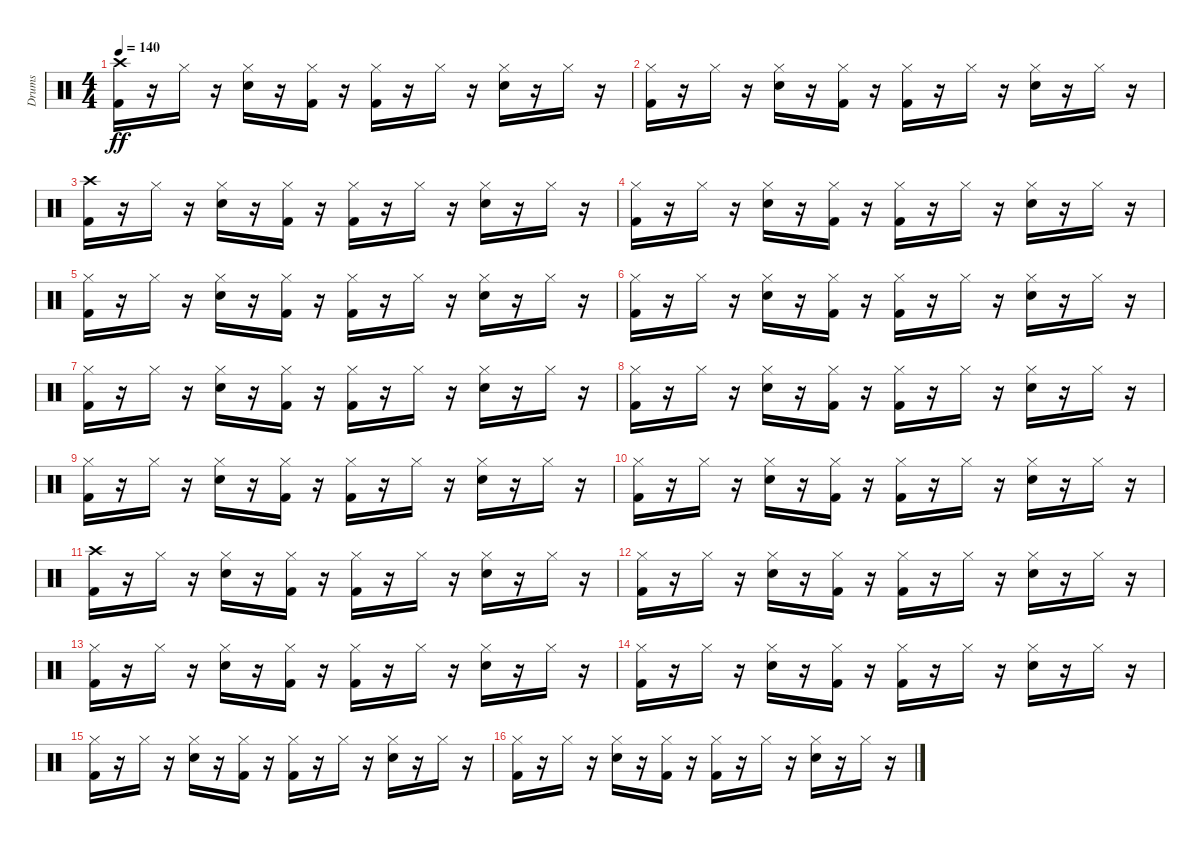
\track ("Drums" "Drums") {instrument percussion}
\staff {score}
\articulation defaults
\ts (4 4)
\tempo 140
\clef neutral
\ks c
("Crash high (hit)" "Kick (hit) 2").16{dy ff} r.16 "Hi-Hat (closed)".16 r.16 ("Hi-Hat (closed)" "Snare (hit) 2").16 r.16 ("Hi-Hat (closed)" "Kick (hit) 2").16 r.16 ("Hi-Hat (closed)" "Kick (hit) 2").16 r.16 "Hi-Hat (closed)".16 r.16 ("Hi-Hat (closed)" "Snare (hit) 2").16 r.16 "Hi-Hat (closed)".16 r.16 |
("Hi-Hat (closed)" "Kick (hit) 2").16 r.16 "Hi-Hat (closed)".16 r.16 ("Hi-Hat (closed)" "Snare (hit) 2").16 r.16 ("Hi-Hat (closed)" "Kick (hit) 2").16 r.16 ("Hi-Hat (closed)" "Kick (hit) 2").16 r.16 "Hi-Hat (closed)".16 r.16 ("Hi-Hat (closed)" "Snare (hit) 2").16 r.16 "Hi-Hat (closed)".16 r.16 |
("Crash high (hit)" "Kick (hit) 2").16 r.16 "Hi-Hat (closed)".16 r.16 ("Hi-Hat (closed)" "Snare (hit) 2").16 r.16 ("Hi-Hat (closed)" "Kick (hit) 2").16 r.16 ("Hi-Hat (closed)" "Kick (hit) 2").16 r.16 "Hi-Hat (closed)".16 r.16 ("Hi-Hat (closed)" "Snare (hit) 2").16 r.16 "Hi-Hat (closed)".16 r.16 |
("Hi-Hat (closed)" "Kick (hit) 2").16 r.16 "Hi-Hat (closed)".16 r.16 ("Hi-Hat (closed)" "Snare (hit) 2").16 r.16 ("Hi-Hat (closed)" "Kick (hit) 2").16 r.16 ("Hi-Hat (closed)" "Kick (hit) 2").16 r.16 "Hi-Hat (closed)".16 r.16 ("Hi-Hat (closed)" "Snare (hit) 2").16 r.16 "Hi-Hat (closed)".16 r.16 |
("Hi-Hat (closed)" "Kick (hit) 2").16 r.16 "Hi-Hat (closed)".16 r.16 ("Hi-Hat (closed)" "Snare (hit) 2").16 r.16 ("Hi-Hat (closed)" "Kick (hit) 2").16 r.16 ("Hi-Hat (closed)" "Kick (hit) 2").16 r.16 "Hi-Hat (closed)".16 r.16 ("Hi-Hat (closed)" "Snare (hit) 2").16 r.16 "Hi-Hat (closed)".16 r.16 |
("Hi-Hat (closed)" "Kick (hit) 2").16 r.16 "Hi-Hat (closed)".16 r.16 ("Hi-Hat (closed)" "Snare (hit) 2").16 r.16 ("Hi-Hat (closed)" "Kick (hit) 2").16 r.16 ("Hi-Hat (closed)" "Kick (hit) 2").16 r.16 "Hi-Hat (closed)".16 r.16 ("Hi-Hat (closed)" "Snare (hit) 2").16 r.16 "Hi-Hat (closed)".16 r.16 |
("Hi-Hat (closed)" "Kick (hit) 2").16 r.16 "Hi-Hat (closed)".16 r.16 ("Hi-Hat (closed)" "Snare (hit) 2").16 r.16 ("Hi-Hat (closed)" "Kick (hit) 2").16 r.16 ("Hi-Hat (closed)" "Kick (hit) 2").16 r.16 "Hi-Hat (closed)".16 r.16 ("Hi-Hat (closed)" "Snare (hit) 2").16 r.16 "Hi-Hat (closed)".16 r.16 |
("Hi-Hat (closed)" "Kick (hit) 2").16 r.16 "Hi-Hat (closed)".16 r.16 ("Hi-Hat (closed)" "Snare (hit) 2").16 r.16 ("Hi-Hat (closed)" "Kick (hit) 2").16 r.16 ("Hi-Hat (closed)" "Kick (hit) 2").16 r.16 "Hi-Hat (closed)".16 r.16 ("Hi-Hat (closed)" "Snare (hit) 2").16 r.16 "Hi-Hat (closed)".16 r.16 |
("Hi-Hat (closed)" "Kick (hit) 2").16 r.16 "Hi-Hat (closed)".16 r.16 ("Hi-Hat (closed)" "Snare (hit) 2").16 r.16 ("Hi-Hat (closed)" "Kick (hit) 2").16 r.16 ("Hi-Hat (closed)" "Kick (hit) 2").16 r.16 "Hi-Hat (closed)".16 r.16 ("Hi-Hat (closed)" "Snare (hit) 2").16 r.16 "Hi-Hat (closed)".16 r.16 |
("Hi-Hat (closed)" "Kick (hit) 2").16 r.16 "Hi-Hat (closed)".16 r.16 ("Hi-Hat (closed)" "Snare (hit) 2").16 r.16 ("Hi-Hat (closed)" "Kick (hit) 2").16 r.16 ("Hi-Hat (closed)" "Kick (hit) 2").16 r.16 "Hi-Hat (closed)".16 r.16 ("Hi-Hat (closed)" "Snare (hit) 2").16 r.16 "Hi-Hat (closed)".16 r.16 |
("Crash high (hit)" "Kick (hit) 2").16 r.16 "Hi-Hat (closed)".16 r.16 ("Hi-Hat (closed)" "Snare (hit) 2").16 r.16 ("Hi-Hat (closed)" "Kick (hit) 2").16 r.16 ("Hi-Hat (closed)" "Kick (hit) 2").16 r.16 "Hi-Hat (closed)".16 r.16 ("Hi-Hat (closed)" "Snare (hit) 2").16 r.16 "Hi-Hat (closed)".16 r.16 |
("Hi-Hat (closed)" "Kick (hit) 2").16 r.16 "Hi-Hat (closed)".16 r.16 ("Hi-Hat (closed)" "Snare (hit) 2").16 r.16 ("Hi-Hat (closed)" "Kick (hit) 2").16 r.16 ("Hi-Hat (closed)" "Kick (hit) 2").16 r.16 "Hi-Hat (closed)".16 r.16 ("Hi-Hat (closed)" "Snare (hit) 2").16 r.16 "Hi-Hat (closed)".16 r.16 |
("Hi-Hat (closed)" "Kick (hit) 2").16 r.16 "Hi-Hat (closed)".16 r.16 ("Hi-Hat (closed)" "Snare (hit) 2").16 r.16 ("Hi-Hat (closed)" "Kick (hit) 2").16 r.16 ("Hi-Hat (closed)" "Kick (hit) 2").16 r.16 "Hi-Hat (closed)".16 r.16 ("Hi-Hat (closed)" "Snare (hit) 2").16 r.16 "Hi-Hat (closed)".16 r.16 |
("Hi-Hat (closed)" "Kick (hit) 2").16 r.16 "Hi-Hat (closed)".16 r.16 ("Hi-Hat (closed)" "Snare (hit) 2").16 r.16 ("Hi-Hat (closed)" "Kick (hit) 2").16 r.16 ("Hi-Hat (closed)" "Kick (hit) 2").16 r.16 "Hi-Hat (closed)".16 r.16 ("Hi-Hat (closed)" "Snare (hit) 2").16 r.16 "Hi-Hat (closed)".16 r.16 |
("Hi-Hat (closed)" "Kick (hit) 2").16 r.16 "Hi-Hat (closed)".16 r.16 ("Hi-Hat (closed)" "Snare (hit) 2").16 r.16 ("Hi-Hat (closed)" "Kick (hit) 2").16 r.16 ("Hi-Hat (closed)" "Kick (hit) 2").16 r.16 "Hi-Hat (closed)".16 r.16 ("Hi-Hat (closed)" "Snare (hit) 2").16 r.16 "Hi-Hat (closed)".16 r.16 |
("Hi-Hat (closed)" "Kick (hit) 2").16 r.16 "Hi-Hat (closed)".16 r.16 ("Hi-Hat (closed)" "Snare (hit) 2").16 r.16 ("Hi-Hat (closed)" "Kick (hit) 2").16 r.16 ("Hi-Hat (closed)" "Kick (hit) 2").16 r.16 "Hi-Hat (closed)".16 r.16 ("Hi-Hat (closed)" "Snare (hit) 2").16 r.16 "Hi-Hat (closed)".16 r.16
